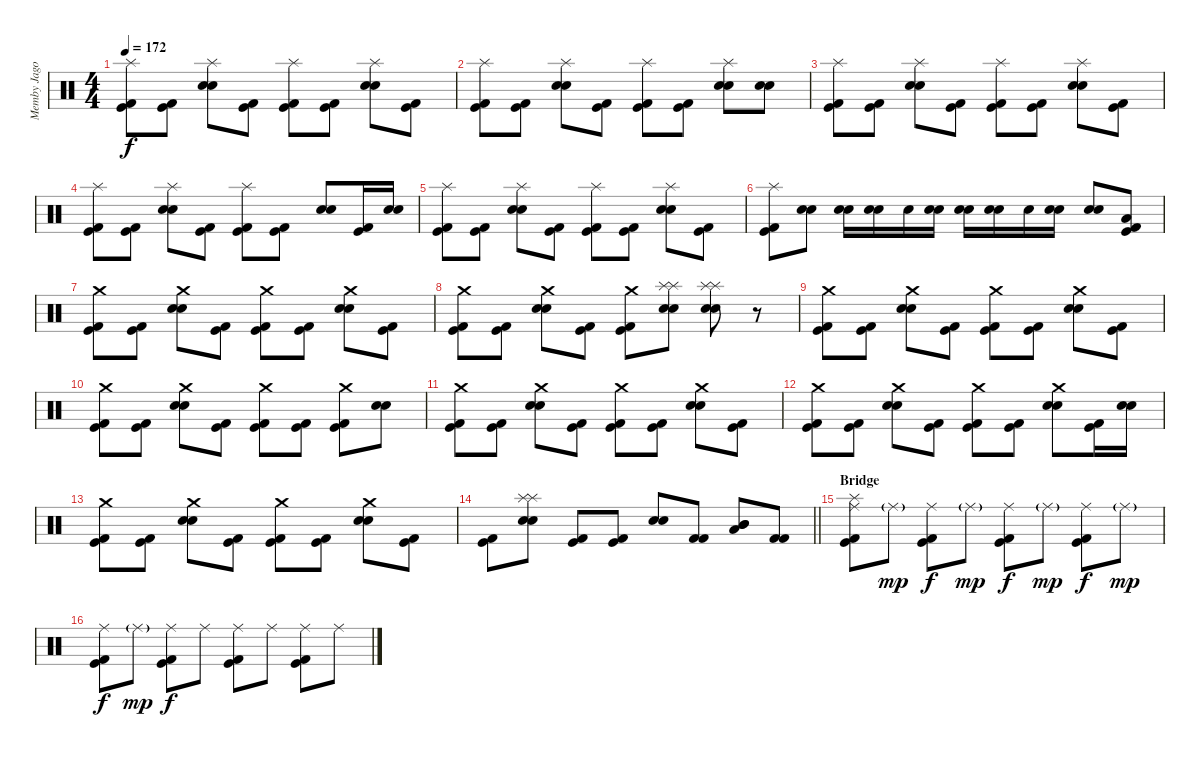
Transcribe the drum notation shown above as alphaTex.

\track ("Memby Jago" "Memby Jago") {instrument percussion}
\staff {score}
\articulation defaults
\ts (4 4)
\tempo 172
\clef neutral
\ks c
("Splash (hit)" "Kick (hit)" "Kick (hit) 2").8{dy f} ("Kick (hit)" "Kick (hit) 2").8 ("Splash (hit)" "Electric Snare (hit)" "Snare (hit) 2").8 ("Kick (hit)" "Kick (hit) 2").8 ("Splash (hit)" "Kick (hit)" "Kick (hit) 2").8 ("Kick (hit)" "Kick (hit) 2").8 ("Splash (hit)" "Electric Snare (hit)" "Snare (hit) 2").8 ("Kick (hit)" "Kick (hit) 2").8 |
("Splash (hit)" "Kick (hit)" "Kick (hit) 2").8 ("Kick (hit)" "Kick (hit) 2").8 ("Splash (hit)" "Electric Snare (hit)" "Snare (hit) 2").8 ("Kick (hit)" "Kick (hit) 2").8 ("Splash (hit)" "Kick (hit)" "Kick (hit) 2").8 ("Kick (hit)" "Kick (hit) 2").8 ("Splash (hit)" "Electric Snare (hit)" "Snare (hit) 2").8 ("Electric Snare (hit)" "Snare (hit) 2").8 |
("Splash (hit)" "Kick (hit)" "Kick (hit) 2").8 ("Kick (hit)" "Kick (hit) 2").8 ("Splash (hit)" "Electric Snare (hit)" "Snare (hit) 2").8 ("Kick (hit)" "Kick (hit) 2").8 ("Splash (hit)" "Kick (hit)" "Kick (hit) 2").8 ("Kick (hit)" "Kick (hit) 2").8 ("Splash (hit)" "Electric Snare (hit)" "Snare (hit) 2").8 ("Kick (hit)" "Kick (hit) 2").8 |
("Splash (hit)" "Kick (hit)" "Kick (hit) 2").8 ("Kick (hit)" "Kick (hit) 2").8 ("Splash (hit)" "Electric Snare (hit)" "Snare (hit) 2").8 ("Kick (hit)" "Kick (hit) 2").8 ("Splash (hit)" "Kick (hit)" "Kick (hit) 2").8 ("Kick (hit)" "Kick (hit) 2").8 ("Electric Snare (hit)" "Snare (hit) 2").8 ("Kick (hit)" "Kick (hit) 2").16 ("Electric Snare (hit)" "Snare (hit) 2").16 |
("Splash (hit)" "Kick (hit)" "Kick (hit) 2").8 ("Kick (hit)" "Kick (hit) 2").8 ("Splash (hit)" "Electric Snare (hit)" "Snare (hit) 2").8 ("Kick (hit)" "Kick (hit) 2").8 ("Splash (hit)" "Kick (hit)" "Kick (hit) 2").8 ("Kick (hit)" "Kick (hit) 2").8 ("Splash (hit)" "Electric Snare (hit)" "Snare (hit) 2").8 ("Kick (hit)" "Kick (hit) 2").8 |
("Splash (hit)" "Kick (hit)" "Kick (hit) 2").8 ("Electric Snare (hit)" "Snare (hit) 2").8 ("Electric Snare (hit)" "Snare (hit) 2").16 ("Electric Snare (hit)" "Snare (hit) 2").16 "Snare (hit) 2".16 ("Electric Snare (hit)" "Snare (hit) 2").16 ("Electric Snare (hit)" "Snare (hit) 2").16 ("Electric Snare (hit)" "Snare (hit) 2").16 "Snare (hit) 2".16 ("Electric Snare (hit)" "Snare (hit) 2").16 ("Electric Snare (hit)" "Snare (hit) 2").8 ("Low Floor Tom (hit)" "Kick (hit)" "Kick (hit) 2").8 |
("Crash medium (hit)" "Kick (hit)" "Kick (hit) 2").8 ("Kick (hit)" "Kick (hit) 2").8 ("Crash medium (hit)" "Electric Snare (hit)" "Snare (hit) 2").8 ("Kick (hit)" "Kick (hit) 2").8 ("Crash medium (hit)" "Kick (hit)" "Kick (hit) 2").8 ("Kick (hit)" "Kick (hit) 2").8 ("Crash medium (hit)" "Electric Snare (hit)" "Snare (hit) 2").8 ("Kick (hit)" "Kick (hit) 2").8 |
("Crash medium (hit)" "Kick (hit)" "Kick (hit) 2").8 ("Kick (hit)" "Kick (hit) 2").8 ("Crash medium (hit)" "Electric Snare (hit)" "Snare (hit) 2").8 ("Kick (hit)" "Kick (hit) 2").8 ("Crash medium (hit)" "Kick (hit)" "Kick (hit) 2").8 ("Splash (hit)" "Splash (hit)" "Electric Snare (hit)" "Snare (hit) 2").8 ("Splash (hit)" "Splash (hit)" "Electric Snare (hit)" "Snare (hit) 2").8 r.8 |
("Crash medium (hit)" "Kick (hit)" "Kick (hit) 2").8 ("Kick (hit)" "Kick (hit) 2").8 ("Crash medium (hit)" "Electric Snare (hit)" "Snare (hit) 2").8 ("Kick (hit)" "Kick (hit) 2").8 ("Crash medium (hit)" "Kick (hit)" "Kick (hit) 2").8 ("Kick (hit)" "Kick (hit) 2").8 ("Crash medium (hit)" "Electric Snare (hit)" "Snare (hit) 2").8 ("Kick (hit)" "Kick (hit) 2").8 |
("Crash medium (hit)" "Kick (hit)" "Kick (hit) 2").8 ("Kick (hit)" "Kick (hit) 2").8 ("Crash medium (hit)" "Electric Snare (hit)" "Snare (hit) 2").8 ("Kick (hit)" "Kick (hit) 2").8 ("Crash medium (hit)" "Kick (hit)" "Kick (hit) 2").8 ("Kick (hit)" "Kick (hit) 2").8 ("Crash medium (hit)" "Kick (hit)" "Kick (hit) 2").8 ("Electric Snare (hit)" "Snare (hit) 2").8 |
("Crash medium (hit)" "Kick (hit)" "Kick (hit) 2").8 ("Kick (hit)" "Kick (hit) 2").8 ("Crash medium (hit)" "Electric Snare (hit)" "Snare (hit) 2").8 ("Kick (hit)" "Kick (hit) 2").8 ("Crash medium (hit)" "Kick (hit)" "Kick (hit) 2").8 ("Kick (hit)" "Kick (hit) 2").8 ("Crash medium (hit)" "Electric Snare (hit)" "Snare (hit) 2").8 ("Kick (hit)" "Kick (hit) 2").8 |
("Crash medium (hit)" "Kick (hit)" "Kick (hit) 2").8 ("Kick (hit)" "Kick (hit) 2").8 ("Crash medium (hit)" "Electric Snare (hit)" "Snare (hit) 2").8 ("Kick (hit)" "Kick (hit) 2").8 ("Crash medium (hit)" "Kick (hit)" "Kick (hit) 2").8 ("Kick (hit)" "Kick (hit) 2").8 ("Crash medium (hit)" "Electric Snare (hit)" "Snare (hit) 2").8 ("Kick (hit)" "Kick (hit) 2").16 ("Electric Snare (hit)" "Snare (hit) 2").16 |
("Crash medium (hit)" "Kick (hit)" "Kick (hit) 2").8 ("Kick (hit)" "Kick (hit) 2").8 ("Crash medium (hit)" "Electric Snare (hit)" "Snare (hit) 2").8 ("Kick (hit)" "Kick (hit) 2").8 ("Crash medium (hit)" "Kick (hit)" "Kick (hit) 2").8 ("Kick (hit)" "Kick (hit) 2").8 ("Crash medium (hit)" "Electric Snare (hit)" "Snare (hit) 2").8 ("Kick (hit)" "Kick (hit) 2").8 |
\barLineRight lightlight
("Kick (hit)" "Kick (hit) 2").8 ("Splash (hit)" "Splash (hit)" "Electric Snare (hit)" "Snare (hit) 2").8 ("Kick (hit)" "Kick (hit) 2").8 ("Kick (hit)" "Kick (hit) 2").8 ("Electric Snare (hit)" "Snare (hit) 2").8 ("Kick (hit) 2" "Kick (hit) 2").8 ("Low Tom (hit)" "Mid Tom (hit)" "Mid Tom (hit)").8 ("Kick (hit) 2" "Kick (hit) 2").8 |
\section ("" "Bridge")
("Ride (middle)" "Splash (hit)" "Kick (hit)" "Kick (hit) 2").8 "Ride (middle)"{g}.8{dy mp} ("Ride (middle)" "Kick (hit)" "Kick (hit) 2").8{dy f} "Ride (middle)"{g}.8{dy mp} ("Ride (middle)" "Kick (hit)" "Kick (hit) 2").8{dy f} "Ride (middle)"{g}.8{dy mp} ("Ride (middle)" "Kick (hit)" "Kick (hit) 2").8{dy f} "Ride (middle)"{g}.8{dy mp} |
("Ride (middle)" "Kick (hit)" "Kick (hit) 2").8{dy f} "Ride (middle)"{g}.8{dy mp} ("Ride (middle)" "Kick (hit)" "Kick (hit) 2").8{dy f} "Ride (middle)".8 ("Ride (middle)" "Kick (hit)" "Kick (hit) 2").8 "Ride (middle)".8 ("Ride (middle)" "Kick (hit)" "Kick (hit) 2").8 "Ride (middle)".8
